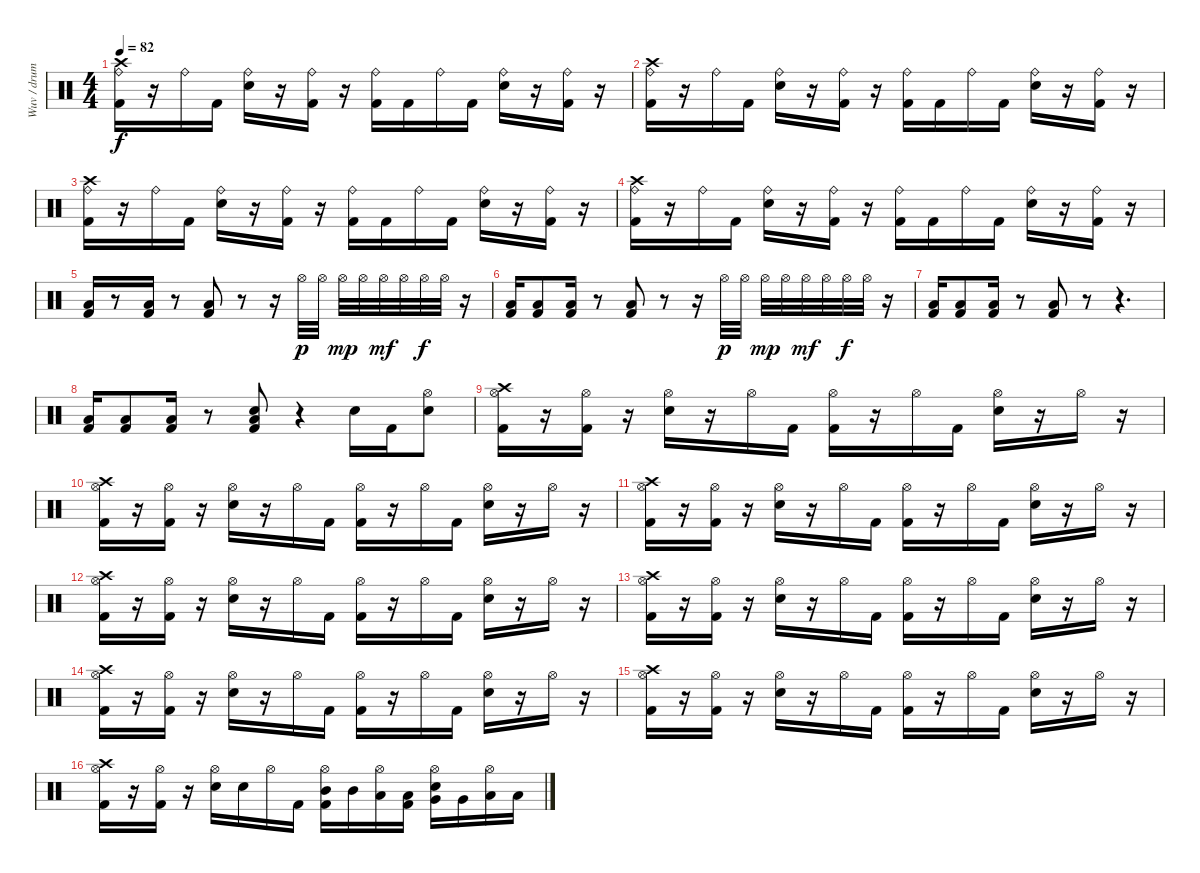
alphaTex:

\track ("Wuv / drums" "Wuv / drum") {instrument percussion}
\staff {score}
\articulation defaults
\ts (4 4)
\tempo 82
\clef neutral
\ks c
("Crash high (hit)" "Ride (bell)" "Kick (hit) 2").16{dy f} r.16 "Ride (bell)".16 "Kick (hit) 2".16 ("Ride (bell)" "Snare (hit) 2").16 r.16 ("Ride (bell)" "Kick (hit) 2").16 r.16 ("Ride (bell)" "Kick (hit) 2").16 "Kick (hit) 2".16 "Ride (bell)".16 "Kick (hit) 2".16 ("Ride (bell)" "Snare (hit) 2").16 r.16 ("Ride (bell)" "Kick (hit) 2").16 r.16 |
("Crash high (hit)" "Ride (bell)" "Kick (hit) 2").16 r.16 "Ride (bell)".16 "Kick (hit) 2".16 ("Ride (bell)" "Snare (hit) 2").16 r.16 ("Ride (bell)" "Kick (hit) 2").16 r.16 ("Ride (bell)" "Kick (hit) 2").16 "Kick (hit) 2".16 "Ride (bell)".16 "Kick (hit) 2".16 ("Ride (bell)" "Snare (hit) 2").16 r.16 ("Ride (bell)" "Kick (hit) 2").16 r.16 |
("Crash high (hit)" "Ride (bell)" "Kick (hit) 2").16 r.16 "Ride (bell)".16 "Kick (hit) 2".16 ("Ride (bell)" "Snare (hit) 2").16 r.16 ("Ride (bell)" "Kick (hit) 2").16 r.16 ("Ride (bell)" "Kick (hit) 2").16 "Kick (hit) 2".16 "Ride (bell)".16 "Kick (hit) 2".16 ("Ride (bell)" "Snare (hit) 2").16 r.16 ("Ride (bell)" "Kick (hit) 2").16 r.16 |
("Crash high (hit)" "Ride (bell)" "Kick (hit) 2").16 r.16 "Ride (bell)".16 "Kick (hit) 2".16 ("Ride (bell)" "Snare (hit) 2").16 r.16 ("Ride (bell)" "Kick (hit) 2").16 r.16 ("Ride (bell)" "Kick (hit) 2").16 "Kick (hit) 2".16 "Ride (bell)".16 "Kick (hit) 2".16 ("Ride (bell)" "Snare (hit) 2").16 r.16 ("Ride (bell)" "Kick (hit) 2").16 r.16 |
("Low Floor Tom (hit)" "Kick (hit) 2").16 r.8 ("Low Floor Tom (hit)" "Kick (hit) 2").16 r.8 ("Low Floor Tom (hit)" "Kick (hit) 2").8 r.8 r.16 "Hi-Hat (open)".32{dy p} "Hi-Hat (open)".32 "Hi-Hat (open)".32{dy mp} "Hi-Hat (open)".32 "Hi-Hat (open)".32{dy mf} "Hi-Hat (open)".32 "Hi-Hat (open)".32{dy f} "Hi-Hat (open)".32 r.16 |
("Low Floor Tom (hit)" "Kick (hit) 2").16 ("Low Floor Tom (hit)" "Kick (hit) 2").8 ("Low Floor Tom (hit)" "Kick (hit) 2").16 r.8 ("Low Floor Tom (hit)" "Kick (hit) 2").8 r.8 r.16 "Hi-Hat (open)".32{dy p} "Hi-Hat (open)".32 "Hi-Hat (open)".32{dy mp} "Hi-Hat (open)".32 "Hi-Hat (open)".32{dy mf} "Hi-Hat (open)".32 "Hi-Hat (open)".32{dy f} "Hi-Hat (open)".32 r.16 |
("Low Floor Tom (hit)" "Kick (hit) 2").16 ("Low Floor Tom (hit)" "Kick (hit) 2").8 ("Low Floor Tom (hit)" "Kick (hit) 2").16 r.8 ("Low Floor Tom (hit)" "Kick (hit) 2").8 r.8 r.4{d} |
("Low Floor Tom (hit)" "Kick (hit) 2").16 ("Low Floor Tom (hit)" "Kick (hit) 2").8 ("Low Floor Tom (hit)" "Kick (hit) 2").16 r.8 ("Snare (hit) 2" "Low Floor Tom (hit)" "Kick (hit) 2").8 r.4 "Snare (hit) 2".16 "Kick (hit) 2".16 ("Hi-Hat (open)" "Snare (hit) 2").8 |
("Crash high (hit)" "Hi-Hat (open)" "Kick (hit) 2").16 r.16 ("Hi-Hat (open)" "Kick (hit) 2").16 r.16 ("Hi-Hat (open)" "Snare (hit) 2").16 r.16 "Hi-Hat (open)".16 "Kick (hit) 2".16 ("Hi-Hat (open)" "Kick (hit) 2").16 r.16 "Hi-Hat (open)".16 "Kick (hit) 2".16 ("Hi-Hat (open)" "Snare (hit) 2").16 r.16 "Hi-Hat (open)".16 r.16 |
("Crash high (hit)" "Hi-Hat (open)" "Kick (hit) 2").16 r.16 ("Hi-Hat (open)" "Kick (hit) 2").16 r.16 ("Hi-Hat (open)" "Snare (hit) 2").16 r.16 "Hi-Hat (open)".16 "Kick (hit) 2".16 ("Hi-Hat (open)" "Kick (hit) 2").16 r.16 "Hi-Hat (open)".16 "Kick (hit) 2".16 ("Hi-Hat (open)" "Snare (hit) 2").16 r.16 "Hi-Hat (open)".16 r.16 |
("Crash high (hit)" "Hi-Hat (open)" "Kick (hit) 2").16 r.16 ("Hi-Hat (open)" "Kick (hit) 2").16 r.16 ("Hi-Hat (open)" "Snare (hit) 2").16 r.16 "Hi-Hat (open)".16 "Kick (hit) 2".16 ("Hi-Hat (open)" "Kick (hit) 2").16 r.16 "Hi-Hat (open)".16 "Kick (hit) 2".16 ("Hi-Hat (open)" "Snare (hit) 2").16 r.16 "Hi-Hat (open)".16 r.16 |
("Crash high (hit)" "Hi-Hat (open)" "Kick (hit) 2").16 r.16 ("Hi-Hat (open)" "Kick (hit) 2").16 r.16 ("Hi-Hat (open)" "Snare (hit) 2").16 r.16 "Hi-Hat (open)".16 "Kick (hit) 2".16 ("Hi-Hat (open)" "Kick (hit) 2").16 r.16 "Hi-Hat (open)".16 "Kick (hit) 2".16 ("Hi-Hat (open)" "Snare (hit) 2").16 r.16 "Hi-Hat (open)".16 r.16 |
("Crash high (hit)" "Hi-Hat (open)" "Kick (hit) 2").16 r.16 ("Hi-Hat (open)" "Kick (hit) 2").16 r.16 ("Hi-Hat (open)" "Snare (hit) 2").16 r.16 "Hi-Hat (open)".16 "Kick (hit) 2".16 ("Hi-Hat (open)" "Kick (hit) 2").16 r.16 "Hi-Hat (open)".16 "Kick (hit) 2".16 ("Hi-Hat (open)" "Snare (hit) 2").16 r.16 "Hi-Hat (open)".16 r.16 |
("Crash high (hit)" "Hi-Hat (open)" "Kick (hit) 2").16 r.16 ("Hi-Hat (open)" "Kick (hit) 2").16 r.16 ("Hi-Hat (open)" "Snare (hit) 2").16 r.16 "Hi-Hat (open)".16 "Kick (hit) 2".16 ("Hi-Hat (open)" "Kick (hit) 2").16 r.16 "Hi-Hat (open)".16 "Kick (hit) 2".16 ("Hi-Hat (open)" "Snare (hit) 2").16 r.16 "Hi-Hat (open)".16 r.16 |
("Crash high (hit)" "Hi-Hat (open)" "Kick (hit) 2").16 r.16 ("Hi-Hat (open)" "Kick (hit) 2").16 r.16 ("Hi-Hat (open)" "Snare (hit) 2").16 r.16 "Hi-Hat (open)".16 "Kick (hit) 2".16 ("Hi-Hat (open)" "Kick (hit) 2").16 r.16 "Hi-Hat (open)".16 "Kick (hit) 2".16 ("Hi-Hat (open)" "Snare (hit) 2").16 r.16 "Hi-Hat (open)".16 r.16 |
("Crash high (hit)" "Hi-Hat (open)" "Kick (hit) 2").16 r.16 ("Hi-Hat (open)" "Kick (hit) 2").16 r.16 ("Hi-Hat (open)" "Snare (hit) 2").16 "Snare (hit) 2".16 "Hi-Hat (open)".16 "Kick (hit) 2".16 ("Hi-Hat (open)" "Mid Tom (hit)" "Kick (hit) 2").16 "Mid Tom (hit)".16 ("Hi-Hat (open)" "Low Tom (hit)").16 ("Low Tom (hit)" "Kick (hit) 2").16 ("Hi-Hat (open)" "Very Low Tom (hit)" "Snare (hit) 2").16 "Very Low Tom (hit)".16 ("Hi-Hat (open)" "Low Floor Tom (hit)").16 "Low Floor Tom (hit)".16
